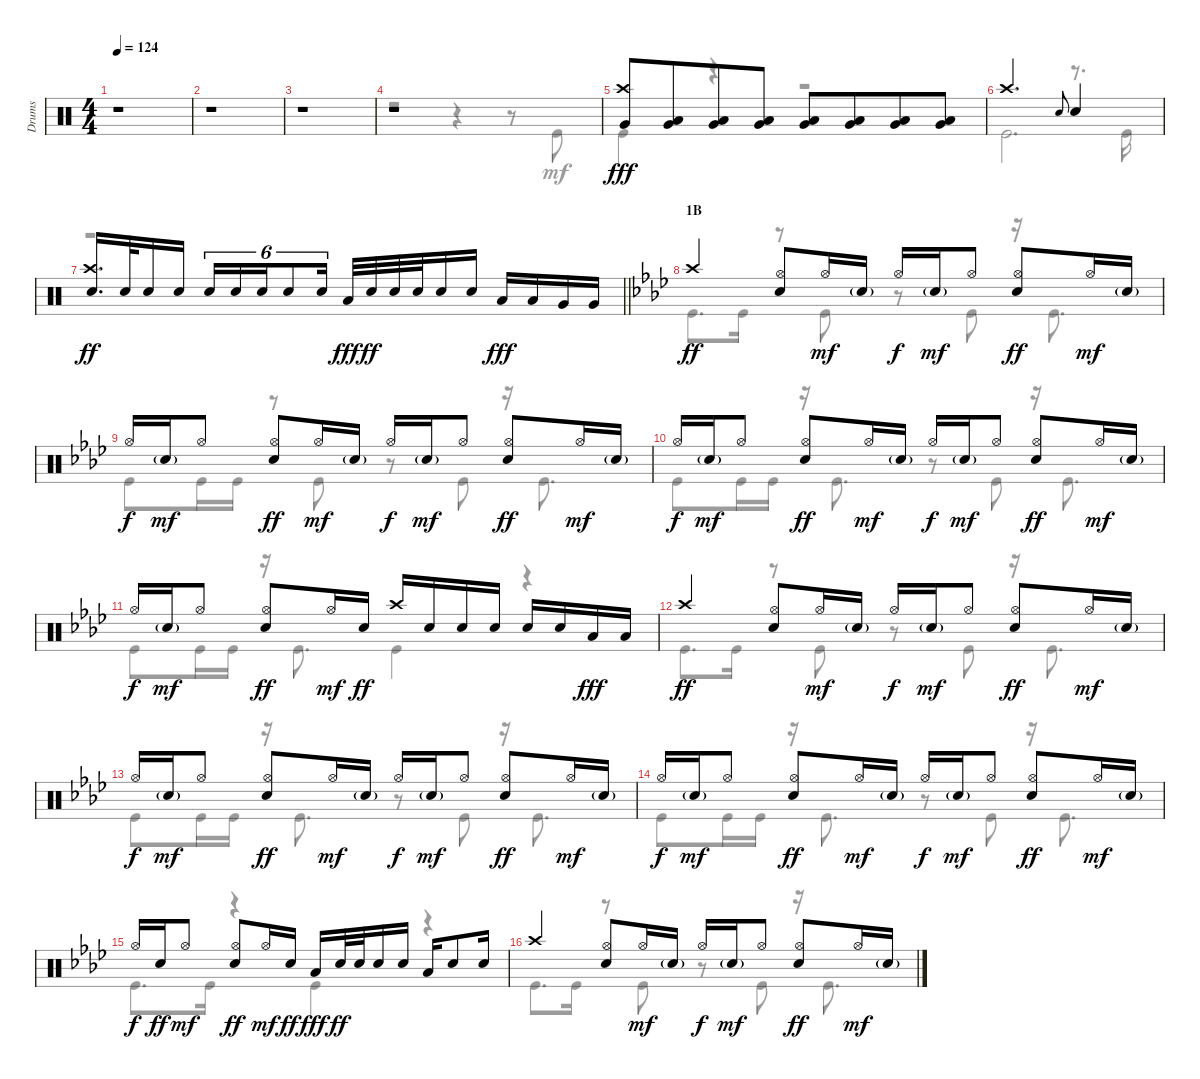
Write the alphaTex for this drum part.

\track ("Drums" "Drums") {solo instrument percussion}
\staff {score}
\articulation defaults
\voice
\ts (4 4)
\tempo 124
\clef neutral
\ks c
r.1{dy fff} |
r.1 |
r.1 |
r.1 |
("Crash high (hit)" "Very Low Tom (hit)").8 ("Low Tom (hit)" "Very Low Tom (hit)").8{beam merge} ("Low Tom (hit)" "Very Low Tom (hit)").8 ("Low Tom (hit)" "Very Low Tom (hit)").8 ("Low Tom (hit)" "Very Low Tom (hit)").8 ("Low Tom (hit)" "Very Low Tom (hit)").8{beam merge} ("Low Tom (hit)" "Very Low Tom (hit)").8 ("Low Tom (hit)" "Very Low Tom (hit)").8 |
"Crash high (hit)".2{d} "Electric Snare (hit)".8{gr onbeat} "Electric Snare (hit)".4 |
\barLineRight lightlight
("Crash high (hit)" "Electric Snare (hit)").16{d dy ff} "Electric Snare (hit)".32{beam splitsecondary} "Electric Snare (hit)".16 "Electric Snare (hit)".16 "Electric Snare (hit)".16{tu (6 4)} "Electric Snare (hit)".16{tu (6 4)} "Electric Snare (hit)".16{tu (6 4)} "Electric Snare (hit)".8{tu (6 4)} "Electric Snare (hit)".16{tu (6 4)} "Low Tom (hit)".32{dy fff} "Electric Snare (hit)".32{dy ff} "Electric Snare (hit)".32 "Electric Snare (hit)".32{beam splitsecondary} "Electric Snare (hit)".16 "Electric Snare (hit)".16 "Low Tom (hit)".16{dy fff} "Low Tom (hit)".16 "Very Low Tom (hit)".16 "Very Low Tom (hit)".16 |
\section ("" "1B")
\ks ab "Crash high (hit)".4{dy ff}
("Hi-Hat (open)" "Electric Snare (hit)").8 "Hi-Hat (open)".16{dy mf} "Electric Snare (hit)"{g}.16 "Hi-Hat (open)".16{dy f} "Electric Snare (hit)"{g}.16{dy mf} "Hi-Hat (open)".8 ("Hi-Hat (open)" "Electric Snare (hit)").8{dy ff} "Hi-Hat (open)".16{dy mf} "Electric Snare (hit)"{g}.16 |
"Hi-Hat (open)".16{dy f} "Electric Snare (hit)"{g}.16{dy mf} "Hi-Hat (open)".8 ("Hi-Hat (open)" "Electric Snare (hit)").8{dy ff} "Hi-Hat (open)".16{dy mf} "Electric Snare (hit)"{g}.16 "Hi-Hat (open)".16{dy f} "Electric Snare (hit)"{g}.16{dy mf} "Hi-Hat (open)".8 ("Hi-Hat (open)" "Electric Snare (hit)").8{dy ff} "Hi-Hat (open)".16{dy mf} "Electric Snare (hit)"{g}.16 |
"Hi-Hat (open)".16{dy f} "Electric Snare (hit)"{g}.16{dy mf} "Hi-Hat (open)".8 ("Hi-Hat (open)" "Electric Snare (hit)").8{dy ff} "Hi-Hat (open)".16{dy mf} "Electric Snare (hit)"{g}.16 "Hi-Hat (open)".16{dy f} "Electric Snare (hit)"{g}.16{dy mf} "Hi-Hat (open)".8 ("Hi-Hat (open)" "Electric Snare (hit)").8{dy ff} "Hi-Hat (open)".16{dy mf} "Electric Snare (hit)"{g}.16 |
"Hi-Hat (open)".16{dy f} "Electric Snare (hit)"{g}.16{dy mf} "Hi-Hat (open)".8 ("Hi-Hat (open)" "Electric Snare (hit)").8{dy ff} "Hi-Hat (open)".16{dy mf} "Electric Snare (hit)".16{dy ff} "Crash high (hit)".16 "Electric Snare (hit)".16 "Electric Snare (hit)".16 "Electric Snare (hit)".16 "Electric Snare (hit)".16 "Electric Snare (hit)".16 "Low Tom (hit)".16{dy fff} "Low Tom (hit)".16 |
"Crash high (hit)".4{dy ff} ("Hi-Hat (open)" "Electric Snare (hit)").8 "Hi-Hat (open)".16{dy mf} "Electric Snare (hit)"{g}.16 "Hi-Hat (open)".16{dy f} "Electric Snare (hit)"{g}.16{dy mf} "Hi-Hat (open)".8 ("Hi-Hat (open)" "Electric Snare (hit)").8{dy ff} "Hi-Hat (open)".16{dy mf} "Electric Snare (hit)"{g}.16 |
"Hi-Hat (open)".16{dy f} "Electric Snare (hit)"{g}.16{dy mf} "Hi-Hat (open)".8 ("Hi-Hat (open)" "Electric Snare (hit)").8{dy ff} "Hi-Hat (open)".16{dy mf} "Electric Snare (hit)"{g}.16 "Hi-Hat (open)".16{dy f} "Electric Snare (hit)"{g}.16{dy mf} "Hi-Hat (open)".8 ("Hi-Hat (open)" "Electric Snare (hit)").8{dy ff} "Hi-Hat (open)".16{dy mf} "Electric Snare (hit)"{g}.16 |
"Hi-Hat (open)".16{dy f} "Electric Snare (hit)"{g}.16{dy mf} "Hi-Hat (open)".8 ("Hi-Hat (open)" "Electric Snare (hit)").8{dy ff} "Hi-Hat (open)".16{dy mf} "Electric Snare (hit)"{g}.16 "Hi-Hat (open)".16{dy f} "Electric Snare (hit)"{g}.16{dy mf} "Hi-Hat (open)".8 ("Hi-Hat (open)" "Electric Snare (hit)").8{dy ff} "Hi-Hat (open)".16{dy mf} "Electric Snare (hit)"{g}.16 |
"Hi-Hat (open)".16{dy f} "Electric Snare (hit)".16{dy ff} "Hi-Hat (open)".8{dy mf} ("Hi-Hat (open)" "Electric Snare (hit)").8{dy ff} "Hi-Hat (open)".16{dy mf} "Electric Snare (hit)".16{dy ff} "Low Tom (hit)".16{dy fff} "Electric Snare (hit)".32{dy ff} "Electric Snare (hit)".32{beam splitsecondary} "Electric Snare (hit)".16 "Electric Snare (hit)".16 "Low Tom (hit)".16 "Electric Snare (hit)".8 "Electric Snare (hit)".16 |
"Crash high (hit)".4 ("Hi-Hat (open)" "Electric Snare (hit)").8 "Hi-Hat (open)".16{dy mf} "Electric Snare (hit)"{g}.16 "Hi-Hat (open)".16{dy f} "Electric Snare (hit)"{g}.16{dy mf} "Hi-Hat (open)".8 ("Hi-Hat (open)" "Electric Snare (hit)").8{dy ff} "Hi-Hat (open)".16{dy mf} "Electric Snare (hit)"{g}.16
\voice
\clef neutral
\ottava regular
\simile none
\ks c
|
|
|
r.2 r.4 r.8 "Kick (hit)".8 |
"Kick (hit)".4 r.4 r.2 |
"Kick (hit)".2{d} r.8{d} "Kick (hit)".16 |
\barLineRight lightlight
r.1 |
\ks ab "Kick (hit)".8{d} "Kick (hit)".16
r.8 "Kick (hit)".8 r.8 "Kick (hit)".8 r.16 "Kick (hit)".8{d} |
"Kick (hit)".8 "Kick (hit)".16 "Kick (hit)".16 r.8 "Kick (hit)".8 r.8 "Kick (hit)".8 r.16 "Kick (hit)".8{d} |
"Kick (hit)".8 "Kick (hit)".16 "Kick (hit)".16 r.16 "Kick (hit)".8{d} r.8 "Kick (hit)".8 r.16 "Kick (hit)".8{d} |
"Kick (hit)".8 "Kick (hit)".16 "Kick (hit)".16 r.16 "Kick (hit)".8{d} "Kick (hit)".4 r.4 |
"Kick (hit)".8{d} "Kick (hit)".16 r.8 "Kick (hit)".8 r.8 "Kick (hit)".8 r.16 "Kick (hit)".8{d} |
"Kick (hit)".8 "Kick (hit)".16 "Kick (hit)".16 r.16 "Kick (hit)".8{d} r.8 "Kick (hit)".8 r.16 "Kick (hit)".8{d} |
"Kick (hit)".8 "Kick (hit)".16 "Kick (hit)".16 r.16 "Kick (hit)".8{d} r.8 "Kick (hit)".8 r.16 "Kick (hit)".8{d} |
"Kick (hit)".8{d} "Kick (hit)".16 r.4 "Kick (hit)".4 r.4 |
"Kick (hit)".8{d} "Kick (hit)".16 r.8 "Kick (hit)".8 r.8 "Kick (hit)".8 r.16 "Kick (hit)".8{d}
